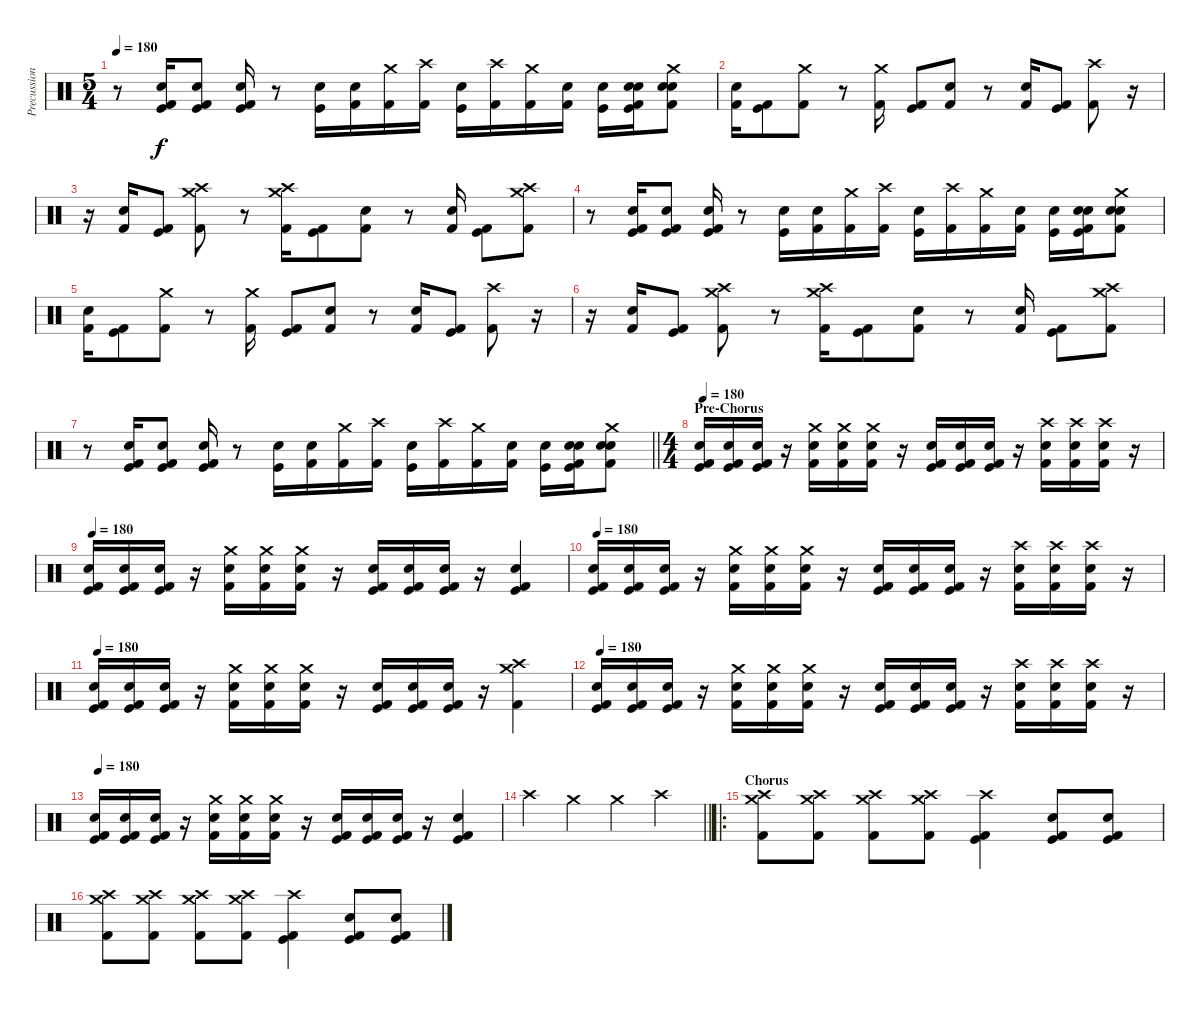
\track ("Precussion" "Precussion") {instrument percussion}
\staff {score}
\articulation defaults
\ts (5 4)
\tempo 180
\clef neutral
\ks c
r.8{dy f} ("Kick (hit)" "Electric Snare (hit)" "Kick (hit) 2").16 ("Kick (hit)" "Electric Snare (hit)" "Kick (hit) 2").8 ("Kick (hit)" "Electric Snare (hit)" "Kick (hit) 2").16 r.8 ("Electric Snare (hit)" "Kick (hit)").16 ("Electric Snare (hit)" "Kick (hit) 2").16 ("Crash medium (hit)" "Kick (hit) 2").16 ("Crash high (hit)" "Kick (hit) 2").16 ("Electric Snare (hit)" "Kick (hit)").16 ("Crash high (hit)" "Kick (hit) 2").16 ("Crash medium (hit)" "Kick (hit) 2").16 ("Electric Snare (hit)" "Kick (hit) 2").16 ("Electric Snare (hit)" "Kick (hit)").16 ("Kick (hit)" "Electric Snare (hit)" "Electric Snare (hit)" "Kick (hit) 2").16 ("Crash medium (hit)" "Electric Snare (hit)" "Electric Snare (hit)" "Kick (hit) 2").8 |
("Electric Snare (hit)" "Kick (hit) 2").16 ("Kick (hit)" "Kick (hit) 2").8 ("Crash medium (hit)" "Kick (hit) 2").8 r.8 ("Crash medium (hit)" "Kick (hit) 2").16 ("Kick (hit)" "Kick (hit) 2").8 ("Electric Snare (hit)" "Kick (hit) 2").8 r.8 ("Electric Snare (hit)" "Kick (hit) 2").16 ("Kick (hit)" "Kick (hit) 2").8 ("Crash high (hit)" "Kick (hit) 2").8 r.16 |
r.16 ("Electric Snare (hit)" "Kick (hit) 2").16 ("Kick (hit)" "Kick (hit) 2").8 ("Crash high (hit)" "Crash medium (hit)" "Kick (hit) 2").8 r.8 ("Crash high (hit)" "Crash medium (hit)" "Kick (hit) 2").16 ("Kick (hit)" "Kick (hit) 2").8 ("Electric Snare (hit)" "Kick (hit) 2").8 r.8 ("Electric Snare (hit)" "Kick (hit) 2").16 ("Kick (hit)" "Kick (hit) 2").8 ("Crash high (hit)" "Crash medium (hit)" "Kick (hit) 2").8 |
r.8 ("Kick (hit)" "Electric Snare (hit)" "Kick (hit) 2").16 ("Kick (hit)" "Electric Snare (hit)" "Kick (hit) 2").8 ("Kick (hit)" "Electric Snare (hit)" "Kick (hit) 2").16 r.8 ("Electric Snare (hit)" "Kick (hit)").16 ("Electric Snare (hit)" "Kick (hit) 2").16 ("Crash medium (hit)" "Kick (hit) 2").16 ("Crash high (hit)" "Kick (hit) 2").16 ("Electric Snare (hit)" "Kick (hit)").16 ("Crash high (hit)" "Kick (hit) 2").16 ("Crash medium (hit)" "Kick (hit) 2").16 ("Electric Snare (hit)" "Kick (hit) 2").16 ("Electric Snare (hit)" "Kick (hit)").16 ("Kick (hit)" "Electric Snare (hit)" "Electric Snare (hit)" "Kick (hit) 2").16 ("Crash medium (hit)" "Electric Snare (hit)" "Electric Snare (hit)" "Kick (hit) 2").8 |
("Electric Snare (hit)" "Kick (hit) 2").16 ("Kick (hit)" "Kick (hit) 2").8 ("Crash medium (hit)" "Kick (hit) 2").8 r.8 ("Crash medium (hit)" "Kick (hit) 2").16 ("Kick (hit)" "Kick (hit) 2").8 ("Electric Snare (hit)" "Kick (hit) 2").8 r.8 ("Electric Snare (hit)" "Kick (hit) 2").16 ("Kick (hit)" "Kick (hit) 2").8 ("Crash high (hit)" "Kick (hit) 2").8 r.16 |
r.16 ("Electric Snare (hit)" "Kick (hit) 2").16 ("Kick (hit)" "Kick (hit) 2").8 ("Crash high (hit)" "Crash medium (hit)" "Kick (hit) 2").8 r.8 ("Crash high (hit)" "Crash medium (hit)" "Kick (hit) 2").16 ("Kick (hit)" "Kick (hit) 2").8 ("Electric Snare (hit)" "Kick (hit) 2").8 r.8 ("Electric Snare (hit)" "Kick (hit) 2").16 ("Kick (hit)" "Kick (hit) 2").8 ("Crash high (hit)" "Crash medium (hit)" "Kick (hit) 2").8 |
\barLineRight lightlight
r.8 ("Kick (hit)" "Electric Snare (hit)" "Kick (hit) 2").16 ("Kick (hit)" "Electric Snare (hit)" "Kick (hit) 2").8 ("Kick (hit)" "Electric Snare (hit)" "Kick (hit) 2").16 r.8 ("Electric Snare (hit)" "Kick (hit)").16 ("Electric Snare (hit)" "Kick (hit) 2").16 ("Crash medium (hit)" "Kick (hit) 2").16 ("Crash high (hit)" "Kick (hit) 2").16 ("Electric Snare (hit)" "Kick (hit)").16 ("Crash high (hit)" "Kick (hit) 2").16 ("Crash medium (hit)" "Kick (hit) 2").16 ("Electric Snare (hit)" "Kick (hit) 2").16 ("Electric Snare (hit)" "Kick (hit)").16 ("Kick (hit)" "Electric Snare (hit)" "Electric Snare (hit)" "Kick (hit) 2").16 ("Crash medium (hit)" "Electric Snare (hit)" "Electric Snare (hit)" "Kick (hit) 2").8 |
\ts (4 4)
\section ("" "Pre-Chorus")
\tempo 180
("Kick (hit)" "Electric Snare (hit)" "Kick (hit) 2").16 ("Kick (hit)" "Electric Snare (hit)" "Kick (hit) 2").16 ("Kick (hit)" "Electric Snare (hit)" "Kick (hit) 2").16 r.16 ("Crash medium (hit)" "Electric Snare (hit)" "Kick (hit) 2").16 ("Crash medium (hit)" "Electric Snare (hit)" "Kick (hit) 2").16 ("Crash medium (hit)" "Electric Snare (hit)" "Kick (hit) 2").16 r.16 ("Kick (hit)" "Electric Snare (hit)" "Kick (hit) 2").16 ("Kick (hit)" "Electric Snare (hit)" "Kick (hit) 2").16 ("Kick (hit)" "Electric Snare (hit)" "Kick (hit) 2").16 r.16 ("Crash high (hit)" "Electric Snare (hit)" "Kick (hit) 2").16 ("Crash high (hit)" "Electric Snare (hit)" "Kick (hit) 2").16 ("Crash high (hit)" "Electric Snare (hit)" "Kick (hit) 2").16 r.16 |
\tempo 180
("Kick (hit)" "Electric Snare (hit)" "Kick (hit) 2").16 ("Kick (hit)" "Electric Snare (hit)" "Kick (hit) 2").16 ("Kick (hit)" "Electric Snare (hit)" "Kick (hit) 2").16 r.16 ("Crash medium (hit)" "Electric Snare (hit)" "Kick (hit) 2").16 ("Crash medium (hit)" "Electric Snare (hit)" "Kick (hit) 2").16 ("Crash medium (hit)" "Electric Snare (hit)" "Kick (hit) 2").16 r.16 ("Kick (hit)" "Electric Snare (hit)" "Kick (hit) 2").16 ("Kick (hit)" "Electric Snare (hit)" "Kick (hit) 2").16 ("Kick (hit)" "Electric Snare (hit)" "Kick (hit) 2").16 r.16 ("Electric Snare (hit)" "Kick (hit)" "Kick (hit) 2").4 |
\tempo 180
("Kick (hit)" "Electric Snare (hit)" "Kick (hit) 2").16 ("Kick (hit)" "Electric Snare (hit)" "Kick (hit) 2").16 ("Kick (hit)" "Electric Snare (hit)" "Kick (hit) 2").16 r.16 ("Crash medium (hit)" "Electric Snare (hit)" "Kick (hit) 2").16 ("Crash medium (hit)" "Electric Snare (hit)" "Kick (hit) 2").16 ("Crash medium (hit)" "Electric Snare (hit)" "Kick (hit) 2").16 r.16 ("Kick (hit)" "Electric Snare (hit)" "Kick (hit) 2").16 ("Kick (hit)" "Electric Snare (hit)" "Kick (hit) 2").16 ("Kick (hit)" "Electric Snare (hit)" "Kick (hit) 2").16 r.16 ("Crash high (hit)" "Electric Snare (hit)" "Kick (hit) 2").16 ("Crash high (hit)" "Electric Snare (hit)" "Kick (hit) 2").16 ("Crash high (hit)" "Electric Snare (hit)" "Kick (hit) 2").16 r.16 |
\tempo 180
("Kick (hit)" "Electric Snare (hit)" "Kick (hit) 2").16 ("Kick (hit)" "Electric Snare (hit)" "Kick (hit) 2").16 ("Kick (hit)" "Electric Snare (hit)" "Kick (hit) 2").16 r.16 ("Crash medium (hit)" "Electric Snare (hit)" "Kick (hit) 2").16 ("Crash medium (hit)" "Electric Snare (hit)" "Kick (hit) 2").16 ("Crash medium (hit)" "Electric Snare (hit)" "Kick (hit) 2").16 r.16 ("Kick (hit)" "Electric Snare (hit)" "Kick (hit) 2").16 ("Kick (hit)" "Electric Snare (hit)" "Kick (hit) 2").16 ("Kick (hit)" "Electric Snare (hit)" "Kick (hit) 2").16 r.16 ("Crash medium (hit)" "Crash high (hit)" "Kick (hit) 2").4 |
\tempo 180
("Kick (hit)" "Electric Snare (hit)" "Kick (hit) 2").16 ("Kick (hit)" "Electric Snare (hit)" "Kick (hit) 2").16 ("Kick (hit)" "Electric Snare (hit)" "Kick (hit) 2").16 r.16 ("Crash medium (hit)" "Electric Snare (hit)" "Kick (hit) 2").16 ("Crash medium (hit)" "Electric Snare (hit)" "Kick (hit) 2").16 ("Crash medium (hit)" "Electric Snare (hit)" "Kick (hit) 2").16 r.16 ("Kick (hit)" "Electric Snare (hit)" "Kick (hit) 2").16 ("Kick (hit)" "Electric Snare (hit)" "Kick (hit) 2").16 ("Kick (hit)" "Electric Snare (hit)" "Kick (hit) 2").16 r.16 ("Crash high (hit)" "Electric Snare (hit)" "Kick (hit) 2").16 ("Crash high (hit)" "Electric Snare (hit)" "Kick (hit) 2").16 ("Crash high (hit)" "Electric Snare (hit)" "Kick (hit) 2").16 r.16 |
\tempo 180
("Kick (hit)" "Electric Snare (hit)" "Kick (hit) 2").16 ("Kick (hit)" "Electric Snare (hit)" "Kick (hit) 2").16 ("Kick (hit)" "Electric Snare (hit)" "Kick (hit) 2").16 r.16 ("Crash medium (hit)" "Electric Snare (hit)" "Kick (hit) 2").16 ("Crash medium (hit)" "Electric Snare (hit)" "Kick (hit) 2").16 ("Crash medium (hit)" "Electric Snare (hit)" "Kick (hit) 2").16 r.16 ("Kick (hit)" "Electric Snare (hit)" "Kick (hit) 2").16 ("Kick (hit)" "Electric Snare (hit)" "Kick (hit) 2").16 ("Kick (hit)" "Electric Snare (hit)" "Kick (hit) 2").16 r.16 ("Electric Snare (hit)" "Kick (hit)" "Kick (hit) 2").4 |
\barLineRight lightlight "Crash high (hit)".4 "Crash medium (hit)".4 "Crash medium (hit)".4 "Crash high (hit)".4
|
\ro
\section ("" "Chorus")
("Crash medium (hit)" "Crash high (hit)" "Kick (hit) 2").8 ("Crash medium (hit)" "Crash high (hit)" "Kick (hit) 2").8 ("Crash medium (hit)" "Crash high (hit)" "Kick (hit) 2").8 ("Crash medium (hit)" "Crash high (hit)" "Kick (hit) 2").8 ("Kick (hit)" "Crash high (hit)" "Kick (hit) 2").4 ("Electric Snare (hit)" "Kick (hit)" "Kick (hit) 2").8 ("Electric Snare (hit)" "Kick (hit)" "Kick (hit) 2").8 |
("Crash medium (hit)" "Crash high (hit)" "Kick (hit) 2").8 ("Crash medium (hit)" "Crash high (hit)" "Kick (hit) 2").8 ("Crash medium (hit)" "Crash high (hit)" "Kick (hit) 2").8 ("Crash medium (hit)" "Crash high (hit)" "Kick (hit) 2").8 ("Kick (hit)" "Crash high (hit)" "Kick (hit) 2").4 ("Electric Snare (hit)" "Kick (hit)" "Kick (hit) 2").8 ("Electric Snare (hit)" "Kick (hit)" "Kick (hit) 2").8
